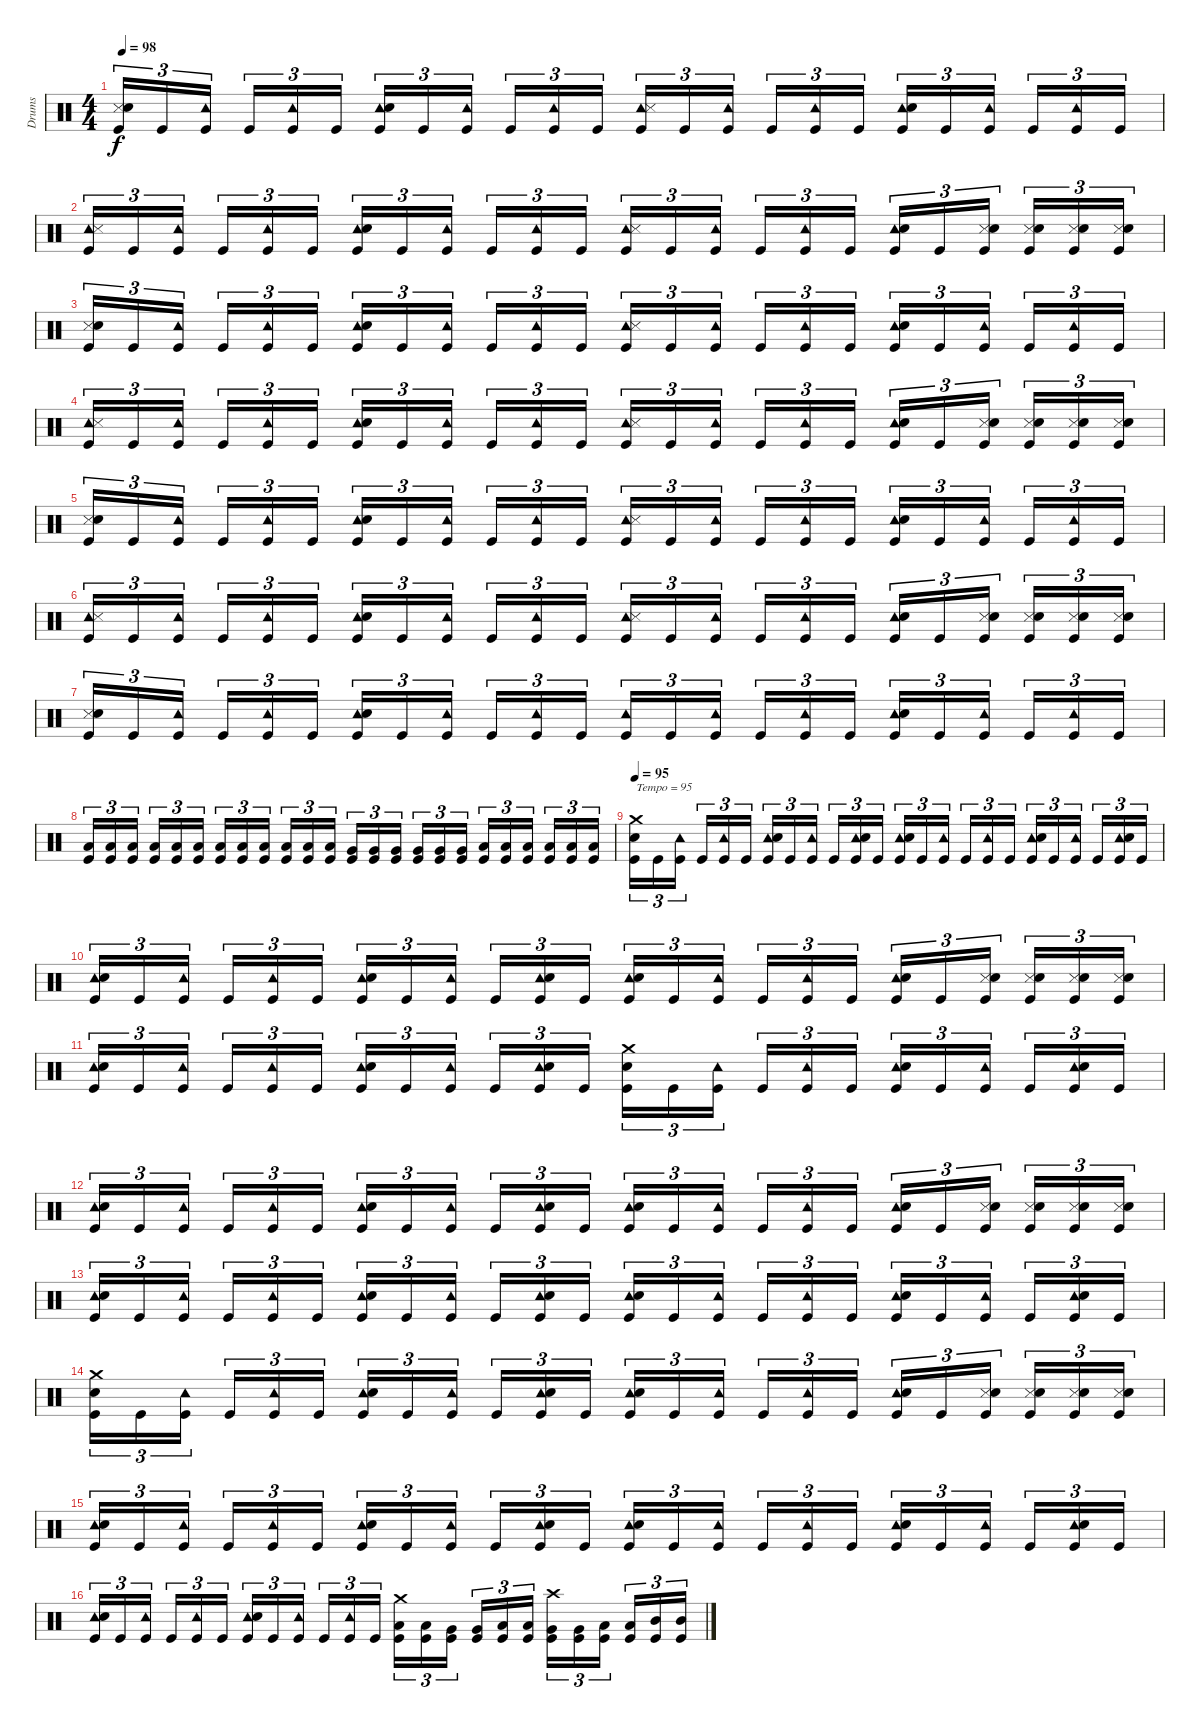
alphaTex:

\track ("Drums" "Drums") {instrument percussion}
\staff {score}
\articulation defaults
\ts (4 4)
\tempo 98
\clef neutral
\ks c
("Snare (side stick) 3" "Snare (hit) 2" "Kick (hit)").16{tu (3 2) dy f} "Kick (hit)".16{tu (3 2)} ("Tambourine (hit)" "Kick (hit)").16{tu (3 2)} "Kick (hit)".16{tu (3 2)} ("Tambourine (hit)" "Kick (hit)").16{tu (3 2)} "Kick (hit)".16{tu (3 2)} ("Tambourine (hit)" "Snare (hit) 2" "Kick (hit)").16{tu (3 2)} "Kick (hit)".16{tu (3 2)} ("Tambourine (hit)" "Kick (hit)").16{tu (3 2)} "Kick (hit)".16{tu (3 2)} ("Tambourine (hit)" "Kick (hit)").16{tu (3 2)} "Kick (hit)".16{tu (3 2)} ("Tambourine (hit)" "Snare (side stick) 3" "Kick (hit)").16{tu (3 2)} "Kick (hit)".16{tu (3 2)} ("Tambourine (hit)" "Kick (hit)").16{tu (3 2)} "Kick (hit)".16{tu (3 2)} ("Tambourine (hit)" "Kick (hit)").16{tu (3 2)} "Kick (hit)".16{tu (3 2)} ("Tambourine (hit)" "Snare (hit) 2" "Kick (hit)").16{tu (3 2)} "Kick (hit)".16{tu (3 2)} ("Tambourine (hit)" "Kick (hit)").16{tu (3 2)} "Kick (hit)".16{tu (3 2)} ("Tambourine (hit)" "Kick (hit)").16{tu (3 2)} "Kick (hit)".16{tu (3 2)} |
("Tambourine (hit)" "Snare (side stick) 3" "Kick (hit)").16{tu (3 2)} "Kick (hit)".16{tu (3 2)} ("Tambourine (hit)" "Kick (hit)").16{tu (3 2)} "Kick (hit)".16{tu (3 2)} ("Tambourine (hit)" "Kick (hit)").16{tu (3 2)} "Kick (hit)".16{tu (3 2)} ("Tambourine (hit)" "Snare (hit) 2" "Kick (hit)").16{tu (3 2)} "Kick (hit)".16{tu (3 2)} ("Tambourine (hit)" "Kick (hit)").16{tu (3 2)} "Kick (hit)".16{tu (3 2)} ("Tambourine (hit)" "Kick (hit)").16{tu (3 2)} "Kick (hit)".16{tu (3 2)} ("Tambourine (hit)" "Snare (side stick) 3" "Kick (hit)").16{tu (3 2)} "Kick (hit)".16{tu (3 2)} ("Tambourine (hit)" "Kick (hit)").16{tu (3 2)} "Kick (hit)".16{tu (3 2)} ("Tambourine (hit)" "Kick (hit)").16{tu (3 2)} "Kick (hit)".16{tu (3 2)} ("Tambourine (hit)" "Snare (hit) 2" "Kick (hit)").16{tu (3 2)} "Kick (hit)".16{tu (3 2)} ("Snare (side stick) 3" "Snare (hit) 2" "Kick (hit)").16{tu (3 2)} ("Snare (side stick) 3" "Snare (hit) 2" "Kick (hit)").16{tu (3 2)} ("Snare (side stick) 3" "Snare (hit) 2" "Kick (hit)").16{tu (3 2)} ("Snare (side stick) 3" "Snare (hit) 2" "Kick (hit)").16{tu (3 2)} |
("Snare (side stick) 3" "Snare (hit) 2" "Kick (hit)").16{tu (3 2)} "Kick (hit)".16{tu (3 2)} ("Tambourine (hit)" "Kick (hit)").16{tu (3 2)} "Kick (hit)".16{tu (3 2)} ("Tambourine (hit)" "Kick (hit)").16{tu (3 2)} "Kick (hit)".16{tu (3 2)} ("Tambourine (hit)" "Snare (hit) 2" "Kick (hit)").16{tu (3 2)} "Kick (hit)".16{tu (3 2)} ("Tambourine (hit)" "Kick (hit)").16{tu (3 2)} "Kick (hit)".16{tu (3 2)} ("Tambourine (hit)" "Kick (hit)").16{tu (3 2)} "Kick (hit)".16{tu (3 2)} ("Tambourine (hit)" "Snare (side stick) 3" "Kick (hit)").16{tu (3 2)} "Kick (hit)".16{tu (3 2)} ("Tambourine (hit)" "Kick (hit)").16{tu (3 2)} "Kick (hit)".16{tu (3 2)} ("Tambourine (hit)" "Kick (hit)").16{tu (3 2)} "Kick (hit)".16{tu (3 2)} ("Tambourine (hit)" "Snare (hit) 2" "Kick (hit)").16{tu (3 2)} "Kick (hit)".16{tu (3 2)} ("Tambourine (hit)" "Kick (hit)").16{tu (3 2)} "Kick (hit)".16{tu (3 2)} ("Tambourine (hit)" "Kick (hit)").16{tu (3 2)} "Kick (hit)".16{tu (3 2)} |
("Tambourine (hit)" "Snare (side stick) 3" "Kick (hit)").16{tu (3 2)} "Kick (hit)".16{tu (3 2)} ("Tambourine (hit)" "Kick (hit)").16{tu (3 2)} "Kick (hit)".16{tu (3 2)} ("Tambourine (hit)" "Kick (hit)").16{tu (3 2)} "Kick (hit)".16{tu (3 2)} ("Tambourine (hit)" "Snare (hit) 2" "Kick (hit)").16{tu (3 2)} "Kick (hit)".16{tu (3 2)} ("Tambourine (hit)" "Kick (hit)").16{tu (3 2)} "Kick (hit)".16{tu (3 2)} ("Tambourine (hit)" "Kick (hit)").16{tu (3 2)} "Kick (hit)".16{tu (3 2)} ("Tambourine (hit)" "Snare (side stick) 3" "Kick (hit)").16{tu (3 2)} "Kick (hit)".16{tu (3 2)} ("Tambourine (hit)" "Kick (hit)").16{tu (3 2)} "Kick (hit)".16{tu (3 2)} ("Tambourine (hit)" "Kick (hit)").16{tu (3 2)} "Kick (hit)".16{tu (3 2)} ("Tambourine (hit)" "Snare (hit) 2" "Kick (hit)").16{tu (3 2)} "Kick (hit)".16{tu (3 2)} ("Snare (side stick) 3" "Snare (hit) 2" "Kick (hit)").16{tu (3 2)} ("Snare (side stick) 3" "Snare (hit) 2" "Kick (hit)").16{tu (3 2)} ("Snare (side stick) 3" "Snare (hit) 2" "Kick (hit)").16{tu (3 2)} ("Snare (side stick) 3" "Snare (hit) 2" "Kick (hit)").16{tu (3 2)} |
("Snare (side stick) 3" "Snare (hit) 2" "Kick (hit)").16{tu (3 2)} "Kick (hit)".16{tu (3 2)} ("Tambourine (hit)" "Kick (hit)").16{tu (3 2)} "Kick (hit)".16{tu (3 2)} ("Tambourine (hit)" "Kick (hit)").16{tu (3 2)} "Kick (hit)".16{tu (3 2)} ("Tambourine (hit)" "Snare (hit) 2" "Kick (hit)").16{tu (3 2)} "Kick (hit)".16{tu (3 2)} ("Tambourine (hit)" "Kick (hit)").16{tu (3 2)} "Kick (hit)".16{tu (3 2)} ("Tambourine (hit)" "Kick (hit)").16{tu (3 2)} "Kick (hit)".16{tu (3 2)} ("Tambourine (hit)" "Snare (side stick) 3" "Kick (hit)").16{tu (3 2)} "Kick (hit)".16{tu (3 2)} ("Tambourine (hit)" "Kick (hit)").16{tu (3 2)} "Kick (hit)".16{tu (3 2)} ("Tambourine (hit)" "Kick (hit)").16{tu (3 2)} "Kick (hit)".16{tu (3 2)} ("Tambourine (hit)" "Snare (hit) 2" "Kick (hit)").16{tu (3 2)} "Kick (hit)".16{tu (3 2)} ("Tambourine (hit)" "Kick (hit)").16{tu (3 2)} "Kick (hit)".16{tu (3 2)} ("Tambourine (hit)" "Kick (hit)").16{tu (3 2)} "Kick (hit)".16{tu (3 2)} |
("Tambourine (hit)" "Snare (side stick) 3" "Kick (hit)").16{tu (3 2)} "Kick (hit)".16{tu (3 2)} ("Tambourine (hit)" "Kick (hit)").16{tu (3 2)} "Kick (hit)".16{tu (3 2)} ("Tambourine (hit)" "Kick (hit)").16{tu (3 2)} "Kick (hit)".16{tu (3 2)} ("Tambourine (hit)" "Snare (hit) 2" "Kick (hit)").16{tu (3 2)} "Kick (hit)".16{tu (3 2)} ("Tambourine (hit)" "Kick (hit)").16{tu (3 2)} "Kick (hit)".16{tu (3 2)} ("Tambourine (hit)" "Kick (hit)").16{tu (3 2)} "Kick (hit)".16{tu (3 2)} ("Tambourine (hit)" "Snare (side stick) 3" "Kick (hit)").16{tu (3 2)} "Kick (hit)".16{tu (3 2)} ("Tambourine (hit)" "Kick (hit)").16{tu (3 2)} "Kick (hit)".16{tu (3 2)} ("Tambourine (hit)" "Kick (hit)").16{tu (3 2)} "Kick (hit)".16{tu (3 2)} ("Tambourine (hit)" "Snare (hit) 2" "Kick (hit)").16{tu (3 2)} "Kick (hit)".16{tu (3 2)} ("Snare (side stick) 3" "Snare (hit) 2" "Kick (hit)").16{tu (3 2)} ("Snare (side stick) 3" "Snare (hit) 2" "Kick (hit)").16{tu (3 2)} ("Snare (side stick) 3" "Snare (hit) 2" "Kick (hit)").16{tu (3 2)} ("Snare (side stick) 3" "Snare (hit) 2" "Kick (hit)").16{tu (3 2)} |
("Snare (side stick) 3" "Snare (hit) 2" "Kick (hit)").16{tu (3 2)} "Kick (hit)".16{tu (3 2)} ("Tambourine (hit)" "Kick (hit)").16{tu (3 2)} "Kick (hit)".16{tu (3 2)} ("Tambourine (hit)" "Kick (hit)").16{tu (3 2)} "Kick (hit)".16{tu (3 2)} ("Tambourine (hit)" "Snare (hit) 2" "Kick (hit)").16{tu (3 2)} "Kick (hit)".16{tu (3 2)} ("Tambourine (hit)" "Kick (hit)").16{tu (3 2)} "Kick (hit)".16{tu (3 2)} ("Tambourine (hit)" "Kick (hit)").16{tu (3 2)} "Kick (hit)".16{tu (3 2)} ("Tambourine (hit)" "Kick (hit)").16{tu (3 2)} "Kick (hit)".16{tu (3 2)} ("Tambourine (hit)" "Kick (hit)").16{tu (3 2)} "Kick (hit)".16{tu (3 2)} ("Tambourine (hit)" "Kick (hit)").16{tu (3 2)} "Kick (hit)".16{tu (3 2)} ("Tambourine (hit)" "Snare (hit) 2" "Kick (hit)").16{tu (3 2)} "Kick (hit)".16{tu (3 2)} ("Tambourine (hit)" "Kick (hit)").16{tu (3 2)} "Kick (hit)".16{tu (3 2)} ("Tambourine (hit)" "Kick (hit)").16{tu (3 2)} "Kick (hit)".16{tu (3 2)} |
("Low Floor Tom (hit)" "Kick (hit)").16{tu (3 2)} ("Low Floor Tom (hit)" "Kick (hit)").16{tu (3 2)} ("Low Floor Tom (hit)" "Kick (hit)").16{tu (3 2)} ("Low Floor Tom (hit)" "Kick (hit)").16{tu (3 2)} ("Low Floor Tom (hit)" "Kick (hit)").16{tu (3 2)} ("Low Floor Tom (hit)" "Kick (hit)").16{tu (3 2)} ("Low Floor Tom (hit)" "Kick (hit)").16{tu (3 2)} ("Low Floor Tom (hit)" "Kick (hit)").16{tu (3 2)} ("Low Floor Tom (hit)" "Kick (hit)").16{tu (3 2)} ("Low Floor Tom (hit)" "Kick (hit)").16{tu (3 2)} ("Low Floor Tom (hit)" "Kick (hit)").16{tu (3 2)} ("Low Floor Tom (hit)" "Kick (hit)").16{tu (3 2)} ("Very Low Tom (hit)" "Kick (hit)").16{tu (3 2)} ("Very Low Tom (hit)" "Kick (hit)").16{tu (3 2)} ("Very Low Tom (hit)" "Kick (hit)").16{tu (3 2)} ("Very Low Tom (hit)" "Kick (hit)").16{tu (3 2)} ("Very Low Tom (hit)" "Kick (hit)").16{tu (3 2)} ("Very Low Tom (hit)" "Kick (hit)").16{tu (3 2)} ("Low Tom (hit)" "Kick (hit)").16{tu (3 2)} ("Low Tom (hit)" "Kick (hit)").16{tu (3 2)} ("Low Tom (hit)" "Kick (hit)").16{tu (3 2)} ("Low Tom (hit)" "Kick (hit)").16{tu (3 2)} ("Low Tom (hit)" "Kick (hit)").16{tu (3 2)} ("Low Tom (hit)" "Kick (hit)").16{tu (3 2)} |
\tempo 95
("Crash medium (hit)" "Snare (hit) 2" "Kick (hit)").16{tu (3 2) txt "Tempo = 95"} "Kick (hit)".16{tu (3 2)} ("Tambourine (hit)" "Kick (hit)").16{tu (3 2)} "Kick (hit)".16{tu (3 2)} ("Tambourine (hit)" "Kick (hit)").16{tu (3 2)} "Kick (hit)".16{tu (3 2)} ("Tambourine (hit)" "Snare (hit) 2" "Kick (hit)").16{tu (3 2)} "Kick (hit)".16{tu (3 2)} ("Tambourine (hit)" "Kick (hit)").16{tu (3 2)} "Kick (hit)".16{tu (3 2)} ("Tambourine (hit)" "Snare (hit) 2" "Kick (hit)").16{tu (3 2)} "Kick (hit)".16{tu (3 2)} ("Tambourine (hit)" "Snare (hit) 2" "Kick (hit)").16{tu (3 2)} "Kick (hit)".16{tu (3 2)} ("Tambourine (hit)" "Kick (hit)").16{tu (3 2)} "Kick (hit)".16{tu (3 2)} ("Tambourine (hit)" "Kick (hit)").16{tu (3 2)} "Kick (hit)".16{tu (3 2)} ("Tambourine (hit)" "Snare (hit) 2" "Kick (hit)").16{tu (3 2)} "Kick (hit)".16{tu (3 2)} ("Tambourine (hit)" "Kick (hit)").16{tu (3 2)} "Kick (hit)".16{tu (3 2)} ("Tambourine (hit)" "Snare (hit) 2" "Kick (hit)").16{tu (3 2)} "Kick (hit)".16{tu (3 2)} |
("Tambourine (hit)" "Snare (hit) 2" "Kick (hit)").16{tu (3 2)} "Kick (hit)".16{tu (3 2)} ("Tambourine (hit)" "Kick (hit)").16{tu (3 2)} "Kick (hit)".16{tu (3 2)} ("Tambourine (hit)" "Kick (hit)").16{tu (3 2)} "Kick (hit)".16{tu (3 2)} ("Tambourine (hit)" "Snare (hit) 2" "Kick (hit)").16{tu (3 2)} "Kick (hit)".16{tu (3 2)} ("Tambourine (hit)" "Kick (hit)").16{tu (3 2)} "Kick (hit)".16{tu (3 2)} ("Tambourine (hit)" "Snare (hit) 2" "Kick (hit)").16{tu (3 2)} "Kick (hit)".16{tu (3 2)} ("Tambourine (hit)" "Snare (hit) 2" "Kick (hit)").16{tu (3 2)} "Kick (hit)".16{tu (3 2)} ("Tambourine (hit)" "Kick (hit)").16{tu (3 2)} "Kick (hit)".16{tu (3 2)} ("Tambourine (hit)" "Kick (hit)").16{tu (3 2)} "Kick (hit)".16{tu (3 2)} ("Tambourine (hit)" "Snare (hit) 2" "Kick (hit)").16{tu (3 2)} "Kick (hit)".16{tu (3 2)} ("Snare (side stick) 3" "Snare (hit) 2" "Kick (hit)").16{tu (3 2)} ("Snare (side stick) 3" "Snare (hit) 2" "Kick (hit)").16{tu (3 2)} ("Snare (side stick) 3" "Snare (hit) 2" "Kick (hit)").16{tu (3 2)} ("Snare (side stick) 3" "Snare (hit) 2" "Kick (hit)").16{tu (3 2)} |
("Tambourine (hit)" "Snare (hit) 2" "Kick (hit)").16{tu (3 2)} "Kick (hit)".16{tu (3 2)} ("Tambourine (hit)" "Kick (hit)").16{tu (3 2)} "Kick (hit)".16{tu (3 2)} ("Tambourine (hit)" "Kick (hit)").16{tu (3 2)} "Kick (hit)".16{tu (3 2)} ("Tambourine (hit)" "Snare (hit) 2" "Kick (hit)").16{tu (3 2)} "Kick (hit)".16{tu (3 2)} ("Tambourine (hit)" "Kick (hit)").16{tu (3 2)} "Kick (hit)".16{tu (3 2)} ("Tambourine (hit)" "Snare (hit) 2" "Kick (hit)").16{tu (3 2)} "Kick (hit)".16{tu (3 2)} ("Crash medium (hit)" "Snare (hit) 2" "Kick (hit)").16{tu (3 2)} "Kick (hit)".16{tu (3 2)} ("Tambourine (hit)" "Kick (hit)").16{tu (3 2)} "Kick (hit)".16{tu (3 2)} ("Tambourine (hit)" "Kick (hit)").16{tu (3 2)} "Kick (hit)".16{tu (3 2)} ("Tambourine (hit)" "Snare (hit) 2" "Kick (hit)").16{tu (3 2)} "Kick (hit)".16{tu (3 2)} ("Tambourine (hit)" "Kick (hit)").16{tu (3 2)} "Kick (hit)".16{tu (3 2)} ("Tambourine (hit)" "Snare (hit) 2" "Kick (hit)").16{tu (3 2)} "Kick (hit)".16{tu (3 2)} |
("Tambourine (hit)" "Snare (hit) 2" "Kick (hit)").16{tu (3 2)} "Kick (hit)".16{tu (3 2)} ("Tambourine (hit)" "Kick (hit)").16{tu (3 2)} "Kick (hit)".16{tu (3 2)} ("Tambourine (hit)" "Kick (hit)").16{tu (3 2)} "Kick (hit)".16{tu (3 2)} ("Tambourine (hit)" "Snare (hit) 2" "Kick (hit)").16{tu (3 2)} "Kick (hit)".16{tu (3 2)} ("Tambourine (hit)" "Kick (hit)").16{tu (3 2)} "Kick (hit)".16{tu (3 2)} ("Tambourine (hit)" "Snare (hit) 2" "Kick (hit)").16{tu (3 2)} "Kick (hit)".16{tu (3 2)} ("Tambourine (hit)" "Snare (hit) 2" "Kick (hit)").16{tu (3 2)} "Kick (hit)".16{tu (3 2)} ("Tambourine (hit)" "Kick (hit)").16{tu (3 2)} "Kick (hit)".16{tu (3 2)} ("Tambourine (hit)" "Kick (hit)").16{tu (3 2)} "Kick (hit)".16{tu (3 2)} ("Tambourine (hit)" "Snare (hit) 2" "Kick (hit)").16{tu (3 2)} "Kick (hit)".16{tu (3 2)} ("Snare (side stick) 3" "Snare (hit) 2" "Kick (hit)").16{tu (3 2)} ("Snare (side stick) 3" "Snare (hit) 2" "Kick (hit)").16{tu (3 2)} ("Snare (side stick) 3" "Snare (hit) 2" "Kick (hit)").16{tu (3 2)} ("Snare (side stick) 3" "Snare (hit) 2" "Kick (hit)").16{tu (3 2)} |
("Tambourine (hit)" "Snare (hit) 2" "Kick (hit)").16{tu (3 2)} "Kick (hit)".16{tu (3 2)} ("Tambourine (hit)" "Kick (hit)").16{tu (3 2)} "Kick (hit)".16{tu (3 2)} ("Tambourine (hit)" "Kick (hit)").16{tu (3 2)} "Kick (hit)".16{tu (3 2)} ("Tambourine (hit)" "Snare (hit) 2" "Kick (hit)").16{tu (3 2)} "Kick (hit)".16{tu (3 2)} ("Tambourine (hit)" "Kick (hit)").16{tu (3 2)} "Kick (hit)".16{tu (3 2)} ("Tambourine (hit)" "Snare (hit) 2" "Kick (hit)").16{tu (3 2)} "Kick (hit)".16{tu (3 2)} ("Tambourine (hit)" "Snare (hit) 2" "Kick (hit)").16{tu (3 2)} "Kick (hit)".16{tu (3 2)} ("Tambourine (hit)" "Kick (hit)").16{tu (3 2)} "Kick (hit)".16{tu (3 2)} ("Tambourine (hit)" "Kick (hit)").16{tu (3 2)} "Kick (hit)".16{tu (3 2)} ("Tambourine (hit)" "Snare (hit) 2" "Kick (hit)").16{tu (3 2)} "Kick (hit)".16{tu (3 2)} ("Tambourine (hit)" "Kick (hit)").16{tu (3 2)} "Kick (hit)".16{tu (3 2)} ("Tambourine (hit)" "Snare (hit) 2" "Kick (hit)").16{tu (3 2)} "Kick (hit)".16{tu (3 2)} |
("Crash medium (hit)" "Snare (hit) 2" "Kick (hit)").16{tu (3 2)} "Kick (hit)".16{tu (3 2)} ("Tambourine (hit)" "Kick (hit)").16{tu (3 2)} "Kick (hit)".16{tu (3 2)} ("Tambourine (hit)" "Kick (hit)").16{tu (3 2)} "Kick (hit)".16{tu (3 2)} ("Tambourine (hit)" "Snare (hit) 2" "Kick (hit)").16{tu (3 2)} "Kick (hit)".16{tu (3 2)} ("Tambourine (hit)" "Kick (hit)").16{tu (3 2)} "Kick (hit)".16{tu (3 2)} ("Tambourine (hit)" "Snare (hit) 2" "Kick (hit)").16{tu (3 2)} "Kick (hit)".16{tu (3 2)} ("Tambourine (hit)" "Snare (hit) 2" "Kick (hit)").16{tu (3 2)} "Kick (hit)".16{tu (3 2)} ("Tambourine (hit)" "Kick (hit)").16{tu (3 2)} "Kick (hit)".16{tu (3 2)} ("Tambourine (hit)" "Kick (hit)").16{tu (3 2)} "Kick (hit)".16{tu (3 2)} ("Tambourine (hit)" "Snare (hit) 2" "Kick (hit)").16{tu (3 2)} "Kick (hit)".16{tu (3 2)} ("Snare (side stick) 3" "Snare (hit) 2" "Kick (hit)").16{tu (3 2)} ("Snare (side stick) 3" "Snare (hit) 2" "Kick (hit)").16{tu (3 2)} ("Snare (side stick) 3" "Snare (hit) 2" "Kick (hit)").16{tu (3 2)} ("Snare (side stick) 3" "Snare (hit) 2" "Kick (hit)").16{tu (3 2)} |
("Tambourine (hit)" "Snare (hit) 2" "Kick (hit)").16{tu (3 2)} "Kick (hit)".16{tu (3 2)} ("Tambourine (hit)" "Kick (hit)").16{tu (3 2)} "Kick (hit)".16{tu (3 2)} ("Tambourine (hit)" "Kick (hit)").16{tu (3 2)} "Kick (hit)".16{tu (3 2)} ("Tambourine (hit)" "Snare (hit) 2" "Kick (hit)").16{tu (3 2)} "Kick (hit)".16{tu (3 2)} ("Tambourine (hit)" "Kick (hit)").16{tu (3 2)} "Kick (hit)".16{tu (3 2)} ("Tambourine (hit)" "Snare (hit) 2" "Kick (hit)").16{tu (3 2)} "Kick (hit)".16{tu (3 2)} ("Tambourine (hit)" "Snare (hit) 2" "Kick (hit)").16{tu (3 2)} "Kick (hit)".16{tu (3 2)} ("Tambourine (hit)" "Kick (hit)").16{tu (3 2)} "Kick (hit)".16{tu (3 2)} ("Tambourine (hit)" "Kick (hit)").16{tu (3 2)} "Kick (hit)".16{tu (3 2)} ("Tambourine (hit)" "Snare (hit) 2" "Kick (hit)").16{tu (3 2)} "Kick (hit)".16{tu (3 2)} ("Tambourine (hit)" "Kick (hit)").16{tu (3 2)} "Kick (hit)".16{tu (3 2)} ("Tambourine (hit)" "Snare (hit) 2" "Kick (hit)").16{tu (3 2)} "Kick (hit)".16{tu (3 2)} |
("Tambourine (hit)" "Snare (hit) 2" "Kick (hit)").16{tu (3 2)} "Kick (hit)".16{tu (3 2)} ("Tambourine (hit)" "Kick (hit)").16{tu (3 2)} "Kick (hit)".16{tu (3 2)} ("Tambourine (hit)" "Kick (hit)").16{tu (3 2)} "Kick (hit)".16{tu (3 2)} ("Tambourine (hit)" "Snare (hit) 2" "Kick (hit)").16{tu (3 2)} "Kick (hit)".16{tu (3 2)} ("Tambourine (hit)" "Kick (hit)").16{tu (3 2)} "Kick (hit)".16{tu (3 2)} ("Tambourine (hit)" "Kick (hit)").16{tu (3 2)} "Kick (hit)".16{tu (3 2)} ("Crash medium (hit)" "Low Floor Tom (hit)" "Kick (hit)").16{tu (3 2)} ("Low Floor Tom (hit)" "Kick (hit)").16{tu (3 2)} ("Very Low Tom (hit)" "Kick (hit)").16{tu (3 2)} ("Very Low Tom (hit)" "Kick (hit)").16{tu (3 2)} ("Low Tom (hit)" "Kick (hit)").16{tu (3 2)} ("Low Tom (hit)" "Kick (hit)").16{tu (3 2)} ("Crash high (hit)" "Very Low Tom (hit)" "Kick (hit)").16{tu (3 2)} ("Very Low Tom (hit)" "Kick (hit)").16{tu (3 2)} ("Low Tom (hit)" "Kick (hit)").16{tu (3 2)} ("Low Tom (hit)" "Kick (hit)").16{tu (3 2)} ("Mid Tom (hit)" "Kick (hit)").16{tu (3 2)} ("Mid Tom (hit)" "Kick (hit)").16{tu (3 2)}
